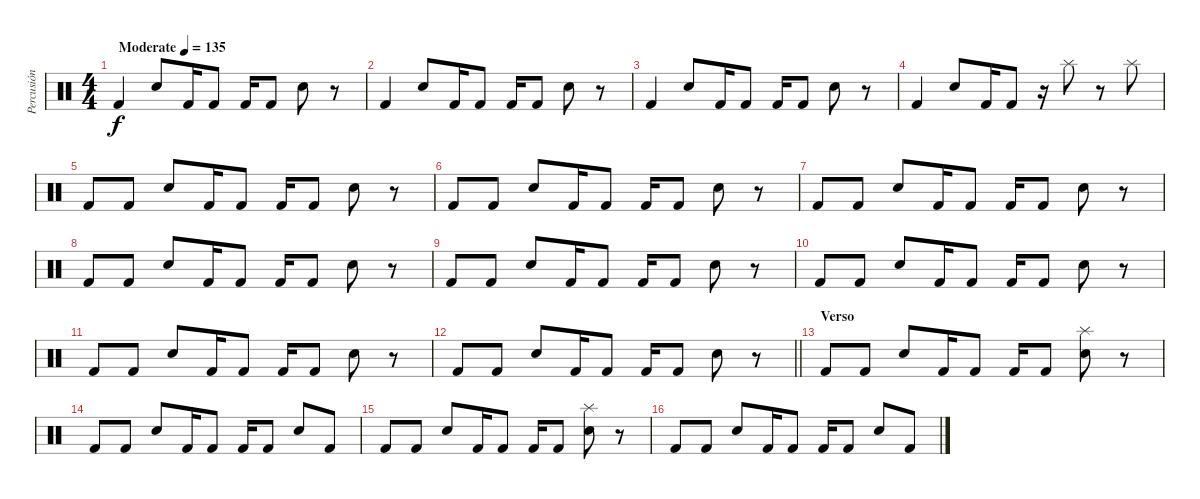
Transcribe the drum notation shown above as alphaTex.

\track ("Percusión" "Percusión") {instrument percussion}
\staff {score}
\articulation defaults
\ts (4 4)
\tempo (135 "Moderate")
\clef neutral
\ks c "Kick (hit) 2".4{dy f} "Snare (hit) 2".8 "Kick (hit) 2".16 "Kick (hit) 2".8 "Kick (hit) 2".16 "Kick (hit) 2".8 "Snare (hit) 2".8
r.8 |
"Kick (hit) 2".4 "Snare (hit) 2".8 "Kick (hit) 2".16 "Kick (hit) 2".8 "Kick (hit) 2".16 "Kick (hit) 2".8 "Snare (hit) 2".8 r.8 |
"Kick (hit) 2".4 "Snare (hit) 2".8 "Kick (hit) 2".16 "Kick (hit) 2".8 "Kick (hit) 2".16 "Kick (hit) 2".8 "Snare (hit) 2".8 r.8 |
"Kick (hit) 2".4 "Snare (hit) 2".8 "Kick (hit) 2".16 "Kick (hit) 2".8 r.16 "Splash (hit)".8 r.8 "Splash (hit)".8 |
"Kick (hit) 2".8 "Kick (hit) 2".8 "Electric Snare (hit)".8 "Kick (hit) 2".16 "Kick (hit) 2".8 "Kick (hit) 2".16 "Kick (hit) 2".8 "Electric Snare (hit)".8 r.8 |
"Kick (hit) 2".8 "Kick (hit) 2".8 "Electric Snare (hit)".8 "Kick (hit) 2".16 "Kick (hit) 2".8 "Kick (hit) 2".16 "Kick (hit) 2".8 "Electric Snare (hit)".8 r.8 |
"Kick (hit) 2".8 "Kick (hit) 2".8 "Electric Snare (hit)".8 "Kick (hit) 2".16 "Kick (hit) 2".8 "Kick (hit) 2".16 "Kick (hit) 2".8 "Electric Snare (hit)".8 r.8 |
"Kick (hit) 2".8 "Kick (hit) 2".8 "Electric Snare (hit)".8 "Kick (hit) 2".16 "Kick (hit) 2".8 "Kick (hit) 2".16 "Kick (hit) 2".8 "Electric Snare (hit)".8 r.8 |
"Kick (hit) 2".8 "Kick (hit) 2".8 "Electric Snare (hit)".8 "Kick (hit) 2".16 "Kick (hit) 2".8 "Kick (hit) 2".16 "Kick (hit) 2".8 "Electric Snare (hit)".8 r.8 |
"Kick (hit) 2".8 "Kick (hit) 2".8 "Electric Snare (hit)".8 "Kick (hit) 2".16 "Kick (hit) 2".8 "Kick (hit) 2".16 "Kick (hit) 2".8 "Electric Snare (hit)".8 r.8 |
"Kick (hit) 2".8 "Kick (hit) 2".8 "Electric Snare (hit)".8 "Kick (hit) 2".16 "Kick (hit) 2".8 "Kick (hit) 2".16 "Kick (hit) 2".8 "Electric Snare (hit)".8 r.8 |
\barLineRight lightlight "Kick (hit) 2".8 "Kick (hit) 2".8 "Electric Snare (hit)".8 "Kick (hit) 2".16 "Kick (hit) 2".8 "Kick (hit) 2".16 "Kick (hit) 2".8 "Electric Snare (hit)".8
r.8 |
\section ("" "Verso")
"Kick (hit) 2".8 "Kick (hit) 2".8 "Electric Snare (hit)".8 "Kick (hit) 2".16 "Kick (hit) 2".8 "Kick (hit) 2".16 "Kick (hit) 2".8 ("Splash (hit)" "Electric Snare (hit)").8 r.8 |
"Kick (hit) 2".8 "Kick (hit) 2".8 "Electric Snare (hit)".8 "Kick (hit) 2".16 "Kick (hit) 2".8 "Kick (hit) 2".16 "Kick (hit) 2".8 "Electric Snare (hit)".8 "Kick (hit) 2".8 |
"Kick (hit) 2".8 "Kick (hit) 2".8 "Electric Snare (hit)".8 "Kick (hit) 2".16 "Kick (hit) 2".8 "Kick (hit) 2".16 "Kick (hit) 2".8 ("Splash (hit)" "Electric Snare (hit)").8 r.8 |
"Kick (hit) 2".8 "Kick (hit) 2".8 "Electric Snare (hit)".8 "Kick (hit) 2".16 "Kick (hit) 2".8 "Kick (hit) 2".16 "Kick (hit) 2".8 "Electric Snare (hit)".8 "Kick (hit) 2".8
